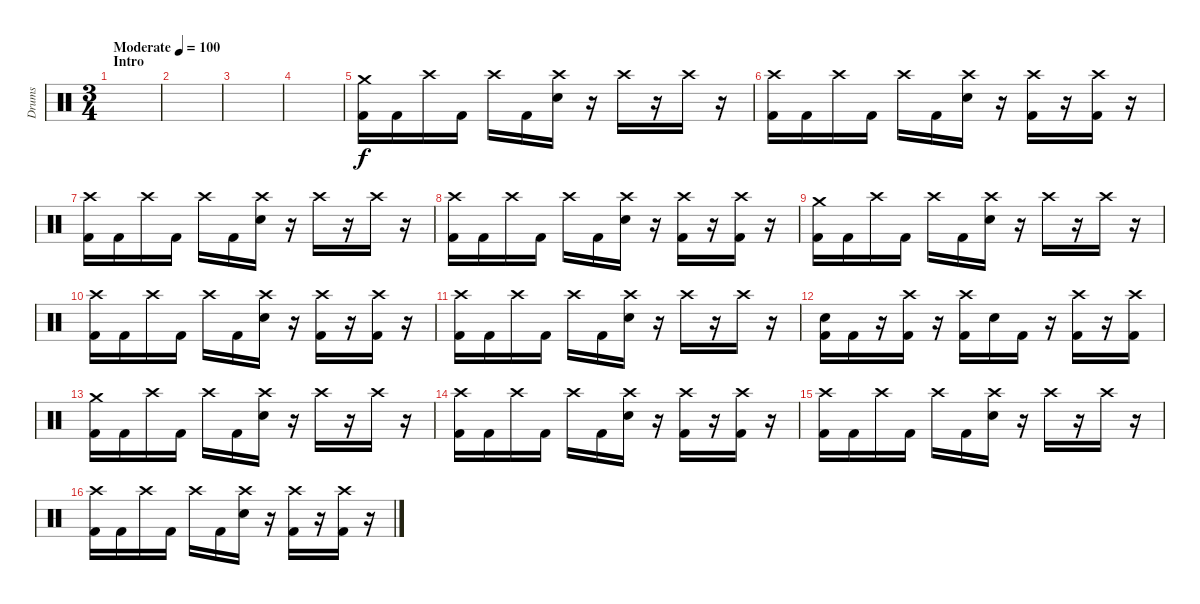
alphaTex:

\track ("Drums" "Drums") {instrument percussion}
\staff {score}
\articulation defaults
\ts (3 4)
\section ("" "Intro")
\tempo (100 "Moderate")
\clef neutral
\ks c
|
|
|
|
("Crash medium (hit)" "Kick (hit) 2").16 "Kick (hit) 2".16 "Crash high (hit)".16 "Kick (hit) 2".16 "Crash high (hit)".16 "Kick (hit) 2".16 ("Crash high (hit)" "Electric Snare (hit)").16 r.16 "Crash high (hit)".16 r.16 "Crash high (hit)".16 r.16 |
("Crash high (hit)" "Kick (hit) 2").16 "Kick (hit) 2".16 "Crash high (hit)".16 "Kick (hit) 2".16 "Crash high (hit)".16 "Kick (hit) 2".16 ("Crash high (hit)" "Electric Snare (hit)").16 r.16 ("Crash high (hit)" "Kick (hit) 2").16 r.16 ("Crash high (hit)" "Kick (hit) 2").16 r.16 |
("Crash high (hit)" "Kick (hit) 2").16 "Kick (hit) 2".16 "Crash high (hit)".16 "Kick (hit) 2".16 "Crash high (hit)".16 "Kick (hit) 2".16 ("Crash high (hit)" "Electric Snare (hit)").16 r.16 "Crash high (hit)".16 r.16 "Crash high (hit)".16 r.16 |
("Crash high (hit)" "Kick (hit) 2").16 "Kick (hit) 2".16 "Crash high (hit)".16 "Kick (hit) 2".16 "Crash high (hit)".16 "Kick (hit) 2".16 ("Crash high (hit)" "Electric Snare (hit)").16 r.16 ("Crash high (hit)" "Kick (hit) 2").16 r.16 ("Crash high (hit)" "Kick (hit) 2").16 r.16 |
("Crash medium (hit)" "Kick (hit) 2").16 "Kick (hit) 2".16 "Crash high (hit)".16 "Kick (hit) 2".16 "Crash high (hit)".16 "Kick (hit) 2".16 ("Crash high (hit)" "Electric Snare (hit)").16 r.16 "Crash high (hit)".16 r.16 "Crash high (hit)".16 r.16 |
("Crash high (hit)" "Kick (hit) 2").16 "Kick (hit) 2".16 "Crash high (hit)".16 "Kick (hit) 2".16 "Crash high (hit)".16 "Kick (hit) 2".16 ("Crash high (hit)" "Electric Snare (hit)").16 r.16 ("Crash high (hit)" "Kick (hit) 2").16 r.16 ("Crash high (hit)" "Kick (hit) 2").16 r.16 |
("Crash high (hit)" "Kick (hit) 2").16 "Kick (hit) 2".16 "Crash high (hit)".16 "Kick (hit) 2".16 "Crash high (hit)".16 "Kick (hit) 2".16 ("Crash high (hit)" "Electric Snare (hit)").16 r.16 "Crash high (hit)".16 r.16 "Crash high (hit)".16 r.16 |
("Electric Snare (hit)" "Kick (hit) 2").16 "Kick (hit) 2".16 r.16 ("Crash high (hit)" "Kick (hit) 2").16 r.16 ("Crash high (hit)" "Kick (hit) 2").16 "Electric Snare (hit)".16 "Kick (hit) 2".16 r.16 ("Crash high (hit)" "Kick (hit) 2").16 r.16 ("Crash high (hit)" "Kick (hit) 2").16 |
("Crash medium (hit)" "Kick (hit) 2").16 "Kick (hit) 2".16 "Crash high (hit)".16 "Kick (hit) 2".16 "Crash high (hit)".16 "Kick (hit) 2".16 ("Crash high (hit)" "Electric Snare (hit)").16 r.16 "Crash high (hit)".16 r.16 "Crash high (hit)".16 r.16 |
("Crash high (hit)" "Kick (hit) 2").16 "Kick (hit) 2".16 "Crash high (hit)".16 "Kick (hit) 2".16 "Crash high (hit)".16 "Kick (hit) 2".16 ("Crash high (hit)" "Electric Snare (hit)").16 r.16 ("Crash high (hit)" "Kick (hit) 2").16 r.16 ("Crash high (hit)" "Kick (hit) 2").16 r.16 |
("Crash high (hit)" "Kick (hit) 2").16 "Kick (hit) 2".16 "Crash high (hit)".16 "Kick (hit) 2".16 "Crash high (hit)".16 "Kick (hit) 2".16 ("Crash high (hit)" "Electric Snare (hit)").16 r.16 "Crash high (hit)".16 r.16 "Crash high (hit)".16 r.16 |
("Crash high (hit)" "Kick (hit) 2").16 "Kick (hit) 2".16 "Crash high (hit)".16 "Kick (hit) 2".16 "Crash high (hit)".16 "Kick (hit) 2".16 ("Crash high (hit)" "Electric Snare (hit)").16 r.16 ("Crash high (hit)" "Kick (hit) 2").16 r.16 ("Crash high (hit)" "Kick (hit) 2").16 r.16
